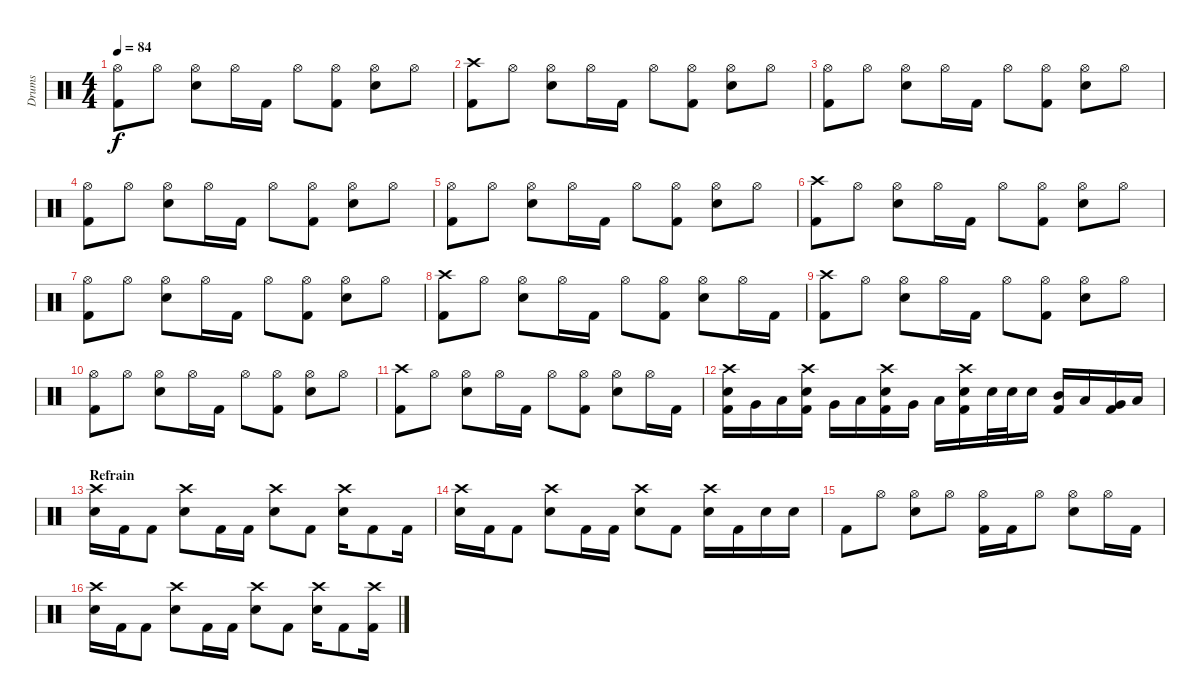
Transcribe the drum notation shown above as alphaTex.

\track ("Drums" "Drums") {instrument percussion}
\staff {score}
\articulation defaults
\ts (4 4)
\tempo 84
\clef neutral
\ks c
("Hi-Hat (open)" "Kick (hit) 2").8{dy f} "Hi-Hat (open)".8 ("Hi-Hat (open)" "Snare (hit) 2").8 "Hi-Hat (open)".16 "Kick (hit) 2".16 "Hi-Hat (open)".8 ("Hi-Hat (open)" "Kick (hit) 2").8 ("Hi-Hat (open)" "Snare (hit) 2").8 "Hi-Hat (open)".8 |
("Crash high (hit)" "Kick (hit) 2").8 "Hi-Hat (open)".8 ("Hi-Hat (open)" "Snare (hit) 2").8 "Hi-Hat (open)".16 "Kick (hit) 2".16 "Hi-Hat (open)".8 ("Hi-Hat (open)" "Kick (hit) 2").8 ("Hi-Hat (open)" "Snare (hit) 2").8 "Hi-Hat (open)".8 |
("Hi-Hat (open)" "Kick (hit) 2").8 "Hi-Hat (open)".8 ("Hi-Hat (open)" "Snare (hit) 2").8 "Hi-Hat (open)".16 "Kick (hit) 2".16 "Hi-Hat (open)".8 ("Hi-Hat (open)" "Kick (hit) 2").8 ("Hi-Hat (open)" "Snare (hit) 2").8 "Hi-Hat (open)".8 |
("Hi-Hat (open)" "Kick (hit) 2").8 "Hi-Hat (open)".8 ("Hi-Hat (open)" "Snare (hit) 2").8 "Hi-Hat (open)".16 "Kick (hit) 2".16 "Hi-Hat (open)".8 ("Hi-Hat (open)" "Kick (hit) 2").8 ("Hi-Hat (open)" "Snare (hit) 2").8 "Hi-Hat (open)".8 |
("Hi-Hat (open)" "Kick (hit) 2").8 "Hi-Hat (open)".8 ("Hi-Hat (open)" "Snare (hit) 2").8 "Hi-Hat (open)".16 "Kick (hit) 2".16 "Hi-Hat (open)".8 ("Hi-Hat (open)" "Kick (hit) 2").8 ("Hi-Hat (open)" "Snare (hit) 2").8 "Hi-Hat (open)".8 |
("Crash high (hit)" "Kick (hit) 2").8 "Hi-Hat (open)".8 ("Hi-Hat (open)" "Snare (hit) 2").8 "Hi-Hat (open)".16 "Kick (hit) 2".16 "Hi-Hat (open)".8 ("Hi-Hat (open)" "Kick (hit) 2").8 ("Hi-Hat (open)" "Snare (hit) 2").8 "Hi-Hat (open)".8 |
("Hi-Hat (open)" "Kick (hit) 2").8 "Hi-Hat (open)".8 ("Hi-Hat (open)" "Snare (hit) 2").8 "Hi-Hat (open)".16 "Kick (hit) 2".16 "Hi-Hat (open)".8 ("Hi-Hat (open)" "Kick (hit) 2").8 ("Hi-Hat (open)" "Snare (hit) 2").8 "Hi-Hat (open)".8 |
("Crash high (hit)" "Kick (hit) 2").8 "Hi-Hat (open)".8 ("Hi-Hat (open)" "Snare (hit) 2").8 "Hi-Hat (open)".16 "Kick (hit) 2".16 "Hi-Hat (open)".8 ("Hi-Hat (open)" "Kick (hit) 2").8 ("Hi-Hat (open)" "Snare (hit) 2").8 "Hi-Hat (open)".16 "Kick (hit) 2".16 |
("Crash high (hit)" "Kick (hit) 2").8 "Hi-Hat (open)".8 ("Hi-Hat (open)" "Snare (hit) 2").8 "Hi-Hat (open)".16 "Kick (hit) 2".16 "Hi-Hat (open)".8 ("Hi-Hat (open)" "Kick (hit) 2").8 ("Hi-Hat (open)" "Snare (hit) 2").8 "Hi-Hat (open)".8 |
("Hi-Hat (open)" "Kick (hit) 2").8 "Hi-Hat (open)".8 ("Hi-Hat (open)" "Snare (hit) 2").8 "Hi-Hat (open)".16 "Kick (hit) 2".16 "Hi-Hat (open)".8 ("Hi-Hat (open)" "Kick (hit) 2").8 ("Hi-Hat (open)" "Snare (hit) 2").8 "Hi-Hat (open)".8 |
("Crash high (hit)" "Kick (hit) 2").8 "Hi-Hat (open)".8 ("Hi-Hat (open)" "Snare (hit) 2").8 "Hi-Hat (open)".16 "Kick (hit) 2".16 "Hi-Hat (open)".8 ("Hi-Hat (open)" "Kick (hit) 2").8 ("Hi-Hat (open)" "Snare (hit) 2").8 "Hi-Hat (open)".16 "Kick (hit) 2".16 |
("Crash high (hit)" "Snare (hit) 2" "Kick (hit) 2").16 "Very Low Tom (hit)".16 "Low Floor Tom (hit)".16 ("Crash high (hit)" "Snare (hit) 2" "Kick (hit) 2").16 "Very Low Tom (hit)".16 "Low Floor Tom (hit)".16 ("Crash high (hit)" "Snare (hit) 2" "Kick (hit) 2").16 "Very Low Tom (hit)".16 "Low Floor Tom (hit)".16 ("Crash high (hit)" "Snare (hit) 2" "Kick (hit) 2").16 "Snare (hit) 2".32 "Snare (hit) 2".32 "Snare (hit) 2".16 ("Mid Tom (hit)" "Kick (hit) 2").16 "Low Tom (hit)".16 ("Very Low Tom (hit)" "Kick (hit) 2").16 "Low Floor Tom (hit)".16 |
\section ("" "Refrain")
("Crash high (hit)" "Snare (hit) 2").16 "Kick (hit) 2".16 "Kick (hit) 2".8 ("Crash high (hit)" "Snare (hit) 2").8 "Kick (hit) 2".16 "Kick (hit) 2".16 ("Crash high (hit)" "Snare (hit) 2").8 "Kick (hit) 2".8 ("Crash high (hit)" "Snare (hit) 2").16 "Kick (hit) 2".8 "Kick (hit) 2".16 |
("Crash high (hit)" "Snare (hit) 2").16 "Kick (hit) 2".16 "Kick (hit) 2".8 ("Crash high (hit)" "Snare (hit) 2").8 "Kick (hit) 2".16 "Kick (hit) 2".16 ("Crash high (hit)" "Snare (hit) 2").8 "Kick (hit) 2".8 ("Crash high (hit)" "Snare (hit) 2").16 "Kick (hit) 2".16 "Snare (hit) 2".16 "Snare (hit) 2".16 |
"Kick (hit) 2".8 "Hi-Hat (open)".8 ("Hi-Hat (open)" "Snare (hit) 2").8 "Hi-Hat (open)".8 ("Hi-Hat (open)" "Kick (hit) 2").16 "Kick (hit) 2".16 "Hi-Hat (open)".8 ("Hi-Hat (open)" "Snare (hit) 2").8 "Hi-Hat (open)".16 "Kick (hit) 2".16 |
("Crash high (hit)" "Snare (hit) 2").16 "Kick (hit) 2".16 "Kick (hit) 2".8 ("Crash high (hit)" "Snare (hit) 2").8 "Kick (hit) 2".16 "Kick (hit) 2".16 ("Crash high (hit)" "Snare (hit) 2").8 "Kick (hit) 2".8 ("Crash high (hit)" "Snare (hit) 2").16 "Kick (hit) 2".8 ("Crash high (hit)" "Kick (hit) 2").16
